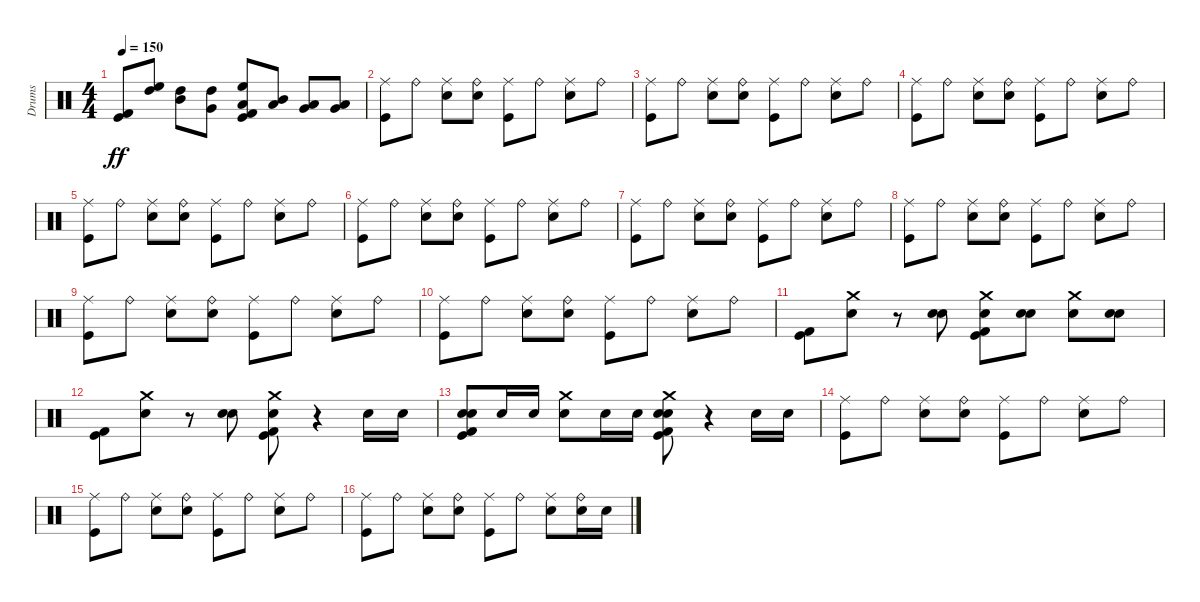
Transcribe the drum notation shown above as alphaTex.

\track ("Drums" "Drums") {instrument percussion}
\staff {score}
\articulation defaults
\ts (4 4)
\tempo 150
\clef neutral
\ks c
("Kick (hit)" "Kick (hit) 2").8{dy ff} ("High Floor Tom (hit)" "High Tom (hit)").8 ("Mid Tom (hit)" "High Tom (hit)").8 ("Very Low Tom (hit)" "High Tom (hit)").8 ("Kick (hit)" "Kick (hit) 2" "High Floor Tom (hit)" "Low Tom (hit)").8 ("Mid Tom (hit)" "Low Tom (hit)").8 ("Very Low Tom (hit)" "Low Tom (hit)").8 ("Very Low Tom (hit)" "Low Floor Tom (hit)").8 |
("Kick (hit)" "Ride (middle)").8 "Ride (bell)".8 ("Snare (hit) 2" "Ride (middle)").8 ("Snare (hit) 2" "Ride (bell)").8 ("Kick (hit)" "Ride (middle)").8 "Ride (bell)".8 ("Snare (hit) 2" "Ride (middle)").8 "Ride (bell)".8 |
("Kick (hit)" "Ride (middle)").8 "Ride (bell)".8 ("Snare (hit) 2" "Ride (middle)").8 ("Snare (hit) 2" "Ride (bell)").8 ("Kick (hit)" "Ride (middle)").8 "Ride (bell)".8 ("Snare (hit) 2" "Ride (middle)").8 "Ride (bell)".8 |
("Kick (hit)" "Ride (middle)").8 "Ride (bell)".8 ("Snare (hit) 2" "Ride (middle)").8 ("Snare (hit) 2" "Ride (bell)").8 ("Kick (hit)" "Ride (middle)").8 "Ride (bell)".8 ("Snare (hit) 2" "Ride (middle)").8 "Ride (bell)".8 |
("Kick (hit)" "Ride (middle)").8 "Ride (bell)".8 ("Snare (hit) 2" "Ride (middle)").8 ("Snare (hit) 2" "Ride (bell)").8 ("Kick (hit)" "Ride (middle)").8 "Ride (bell)".8 ("Snare (hit) 2" "Ride (middle)").8 "Ride (bell)".8 |
("Kick (hit)" "Ride (middle)").8 "Ride (bell)".8 ("Snare (hit) 2" "Ride (middle)").8 ("Snare (hit) 2" "Ride (bell)").8 ("Kick (hit)" "Ride (middle)").8 "Ride (bell)".8 ("Snare (hit) 2" "Ride (middle)").8 "Ride (bell)".8 |
("Kick (hit)" "Ride (middle)").8 "Ride (bell)".8 ("Snare (hit) 2" "Ride (middle)").8 ("Snare (hit) 2" "Ride (bell)").8 ("Kick (hit)" "Ride (middle)").8 "Ride (bell)".8 ("Snare (hit) 2" "Ride (middle)").8 "Ride (bell)".8 |
("Kick (hit)" "Ride (middle)").8 "Ride (bell)".8 ("Snare (hit) 2" "Ride (middle)").8 ("Snare (hit) 2" "Ride (bell)").8 ("Kick (hit)" "Ride (middle)").8 "Ride (bell)".8 ("Snare (hit) 2" "Ride (middle)").8 "Ride (bell)".8 |
("Kick (hit)" "Ride (middle)").8 "Ride (bell)".8 ("Snare (hit) 2" "Ride (middle)").8 ("Snare (hit) 2" "Ride (bell)").8 ("Kick (hit)" "Ride (middle)").8 "Ride (bell)".8 ("Snare (hit) 2" "Ride (middle)").8 "Ride (bell)".8 |
("Kick (hit)" "Ride (middle)").8 "Ride (bell)".8 ("Snare (hit) 2" "Ride (middle)").8 ("Snare (hit) 2" "Ride (bell)").8 ("Kick (hit)" "Ride (middle)").8 "Ride (bell)".8 ("Snare (hit) 2" "Ride (middle)").8 "Ride (bell)".8 |
("Kick (hit)" "Kick (hit) 2").8 ("Electric Snare (hit)" "Crash medium (hit)").8 r.8 ("Snare (hit) 2" "Electric Snare (hit)").8 ("Kick (hit)" "Kick (hit) 2" "Electric Snare (hit)" "Crash medium (hit)").8 ("Snare (hit) 2" "Electric Snare (hit)").8 ("Electric Snare (hit)" "Crash medium (hit)").8 ("Snare (hit) 2" "Electric Snare (hit)").8 |
("Kick (hit)" "Kick (hit) 2").8 ("Electric Snare (hit)" "Crash medium (hit)").8 r.8 ("Snare (hit) 2" "Electric Snare (hit)").8 ("Kick (hit)" "Kick (hit) 2" "Electric Snare (hit)" "Crash medium (hit)").8 r.4 "Electric Snare (hit)".16 "Electric Snare (hit)".16 |
("Kick (hit)" "Kick (hit) 2" "Snare (hit) 2" "Electric Snare (hit)").8 "Electric Snare (hit)".16 "Electric Snare (hit)".16 ("Electric Snare (hit)" "Crash medium (hit)").8 "Electric Snare (hit)".16 "Electric Snare (hit)".16 ("Kick (hit)" "Kick (hit) 2" "Snare (hit) 2" "Electric Snare (hit)" "Crash medium (hit)").8 r.4 "Electric Snare (hit)".16 "Electric Snare (hit)".16 |
("Kick (hit)" "Ride (middle)").8 "Ride (bell)".8 ("Snare (hit) 2" "Ride (middle)").8 ("Snare (hit) 2" "Ride (bell)").8 ("Kick (hit)" "Ride (middle)").8 "Ride (bell)".8 ("Snare (hit) 2" "Ride (middle)").8 "Ride (bell)".8 |
("Kick (hit)" "Ride (middle)").8 "Ride (bell)".8 ("Snare (hit) 2" "Ride (middle)").8 ("Snare (hit) 2" "Ride (bell)").8 ("Kick (hit)" "Ride (middle)").8 "Ride (bell)".8 ("Snare (hit) 2" "Ride (middle)").8 "Ride (bell)".8 |
("Kick (hit)" "Ride (middle)").8 "Ride (bell)".8 ("Snare (hit) 2" "Ride (middle)").8 ("Snare (hit) 2" "Ride (bell)").8 ("Kick (hit)" "Ride (middle)").8 "Ride (bell)".8 ("Snare (hit) 2" "Ride (middle)").8 ("Electric Snare (hit)" "Ride (bell)").16 "Electric Snare (hit)".16
